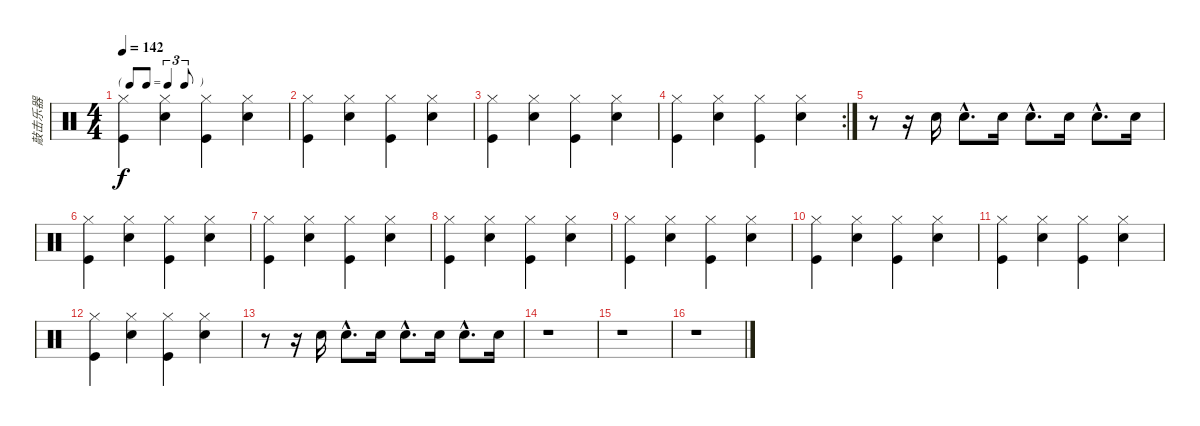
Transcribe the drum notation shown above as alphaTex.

\track ("敲击乐器" "敲击乐器") {instrument percussion}
\staff {score}
\articulation defaults
\ts (4 4)
\tf triplet8th
\tempo 142
\clef neutral
\ks c
("Hi-Hat (closed)" "Kick (hit)").4{dy f} ("Hi-Hat (closed)" "Electric Snare (hit)").4 ("Hi-Hat (closed)" "Kick (hit)").4 ("Hi-Hat (closed)" "Electric Snare (hit)").4 |
("Hi-Hat (closed)" "Kick (hit)").4 ("Hi-Hat (closed)" "Electric Snare (hit)").4 ("Hi-Hat (closed)" "Kick (hit)").4 ("Hi-Hat (closed)" "Electric Snare (hit)").4 |
("Hi-Hat (closed)" "Kick (hit)").4 ("Hi-Hat (closed)" "Electric Snare (hit)").4 ("Hi-Hat (closed)" "Kick (hit)").4 ("Hi-Hat (closed)" "Electric Snare (hit)").4 |
\rc 2
("Hi-Hat (closed)" "Kick (hit)").4 ("Hi-Hat (closed)" "Electric Snare (hit)").4 ("Hi-Hat (closed)" "Kick (hit)").4 ("Hi-Hat (closed)" "Electric Snare (hit)").4 |
r.8 r.16 "Electric Snare (hit)".16 "Electric Snare (hit)"{hac}.8{d} "Electric Snare (hit)".16 "Electric Snare (hit)"{hac}.8{d} "Electric Snare (hit)".16 "Electric Snare (hit)"{hac}.8{d} "Electric Snare (hit)".16 |
("Hi-Hat (closed)" "Kick (hit)").4 ("Hi-Hat (closed)" "Electric Snare (hit)").4 ("Hi-Hat (closed)" "Kick (hit)").4 ("Hi-Hat (closed)" "Electric Snare (hit)").4 |
("Hi-Hat (closed)" "Kick (hit)").4 ("Hi-Hat (closed)" "Electric Snare (hit)").4 ("Hi-Hat (closed)" "Kick (hit)").4 ("Hi-Hat (closed)" "Electric Snare (hit)").4 |
("Hi-Hat (closed)" "Kick (hit)").4 ("Hi-Hat (closed)" "Electric Snare (hit)").4 ("Hi-Hat (closed)" "Kick (hit)").4 ("Hi-Hat (closed)" "Electric Snare (hit)").4 |
("Hi-Hat (closed)" "Kick (hit)").4 ("Hi-Hat (closed)" "Electric Snare (hit)").4 ("Hi-Hat (closed)" "Kick (hit)").4 ("Hi-Hat (closed)" "Electric Snare (hit)").4 |
("Hi-Hat (closed)" "Kick (hit)").4 ("Hi-Hat (closed)" "Electric Snare (hit)").4 ("Hi-Hat (closed)" "Kick (hit)").4 ("Hi-Hat (closed)" "Electric Snare (hit)").4 |
("Hi-Hat (closed)" "Kick (hit)").4 ("Hi-Hat (closed)" "Electric Snare (hit)").4 ("Hi-Hat (closed)" "Kick (hit)").4 ("Hi-Hat (closed)" "Electric Snare (hit)").4 |
("Hi-Hat (closed)" "Kick (hit)").4 ("Hi-Hat (closed)" "Electric Snare (hit)").4 ("Hi-Hat (closed)" "Kick (hit)").4 ("Hi-Hat (closed)" "Electric Snare (hit)").4 |
r.8 r.16 "Electric Snare (hit)".16 "Electric Snare (hit)"{hac}.8{d} "Electric Snare (hit)".16 "Electric Snare (hit)"{hac}.8{d} "Electric Snare (hit)".16 "Electric Snare (hit)"{hac}.8{d} "Electric Snare (hit)".16 |
r.1 |
r.1 |
r.1
